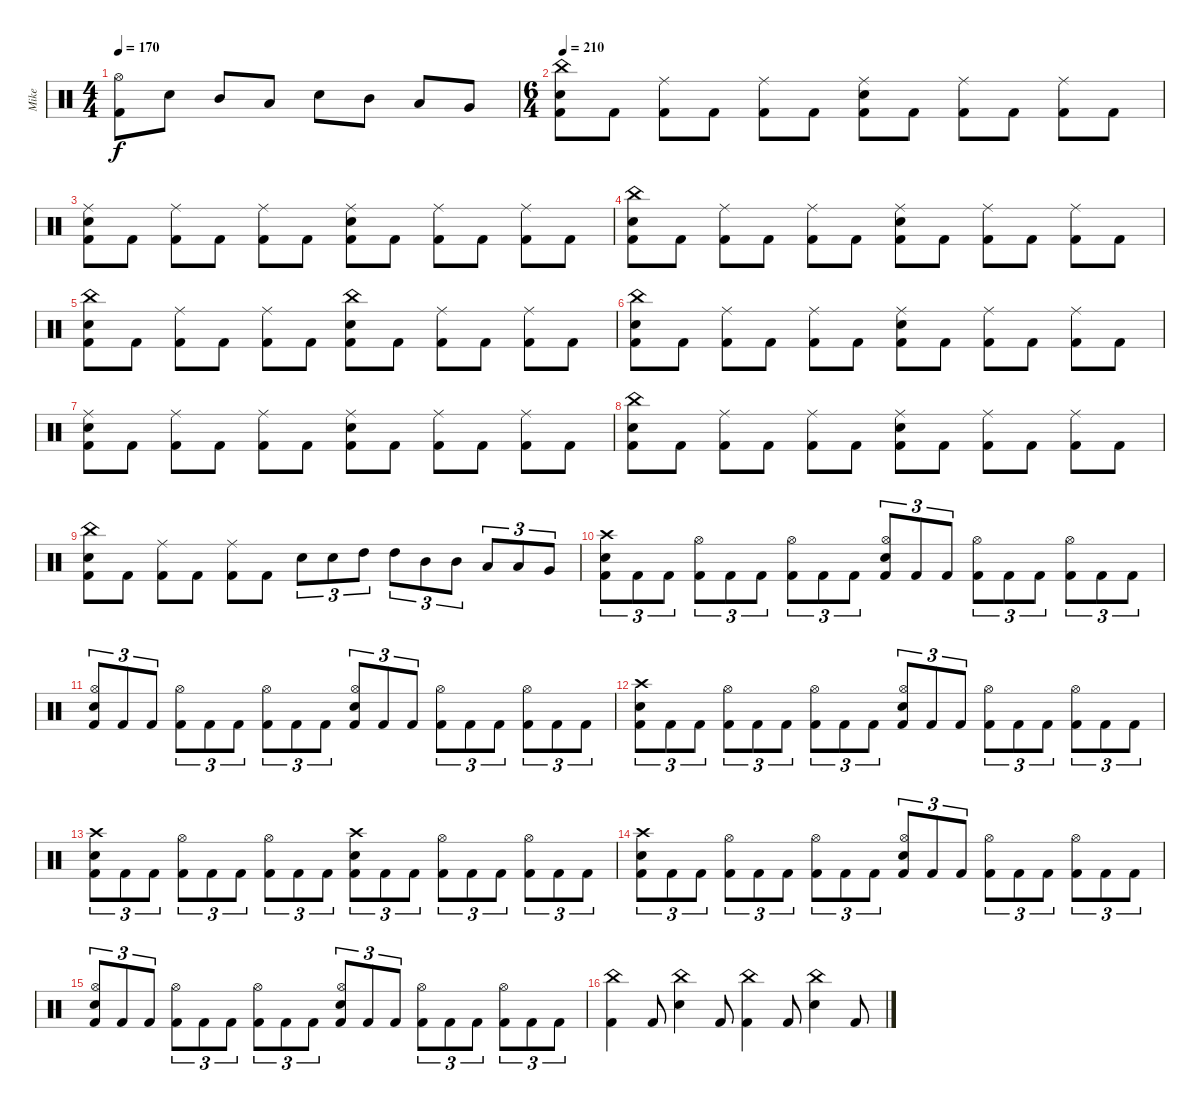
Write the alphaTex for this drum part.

\track ("Mike" "Mike") {instrument percussion}
\staff {score}
\articulation defaults
\ts (4 4)
\tempo 170
\clef neutral
\ks c
("Kick (hit) 2" "Hi-Hat (open)").8{dy f} "Electric Snare (hit)".8 "Mid Tom (hit)".8 "Low Tom (hit)".8 "Electric Snare (hit)".8 "Mid Tom (hit)".8 "Low Tom (hit)".8 "Very Low Tom (hit)".8 |
\ts (6 4)
\tempo 210
("Kick (hit) 2" "Electric Snare (hit)" "China (hit)").8 "Kick (hit) 2".8 ("Kick (hit) 2" "Ride (middle)").8 "Kick (hit) 2".8 ("Kick (hit) 2" "Ride (middle)").8 "Kick (hit) 2".8 ("Kick (hit) 2" "Electric Snare (hit)" "Ride (middle)").8 "Kick (hit) 2".8 ("Kick (hit) 2" "Ride (middle)").8 "Kick (hit) 2".8 ("Kick (hit) 2" "Ride (middle)").8 "Kick (hit) 2".8 |
("Kick (hit) 2" "Electric Snare (hit)" "Ride (middle)").8 "Kick (hit) 2".8 ("Kick (hit) 2" "Ride (middle)").8 "Kick (hit) 2".8 ("Kick (hit) 2" "Ride (middle)").8 "Kick (hit) 2".8 ("Kick (hit) 2" "Electric Snare (hit)" "Ride (middle)").8 "Kick (hit) 2".8 ("Kick (hit) 2" "Ride (middle)").8 "Kick (hit) 2".8 ("Kick (hit) 2" "Ride (middle)").8 "Kick (hit) 2".8 |
("Kick (hit) 2" "Electric Snare (hit)" "China (hit)").8 "Kick (hit) 2".8 ("Kick (hit) 2" "Ride (middle)").8 "Kick (hit) 2".8 ("Kick (hit) 2" "Ride (middle)").8 "Kick (hit) 2".8 ("Kick (hit) 2" "Electric Snare (hit)" "Ride (middle)").8 "Kick (hit) 2".8 ("Kick (hit) 2" "Ride (middle)").8 "Kick (hit) 2".8 ("Kick (hit) 2" "Ride (middle)").8 "Kick (hit) 2".8 |
("Kick (hit) 2" "Electric Snare (hit)" "China (hit)").8 "Kick (hit) 2".8 ("Kick (hit) 2" "Ride (middle)").8 "Kick (hit) 2".8 ("Kick (hit) 2" "Ride (middle)").8 "Kick (hit) 2".8 ("Kick (hit) 2" "Electric Snare (hit)" "China (hit)").8 "Kick (hit) 2".8 ("Kick (hit) 2" "Ride (middle)").8 "Kick (hit) 2".8 ("Kick (hit) 2" "Ride (middle)").8 "Kick (hit) 2".8 |
("Kick (hit) 2" "Electric Snare (hit)" "China (hit)").8 "Kick (hit) 2".8 ("Kick (hit) 2" "Ride (middle)").8 "Kick (hit) 2".8 ("Kick (hit) 2" "Ride (middle)").8 "Kick (hit) 2".8 ("Kick (hit) 2" "Electric Snare (hit)" "Ride (middle)").8 "Kick (hit) 2".8 ("Kick (hit) 2" "Ride (middle)").8 "Kick (hit) 2".8 ("Kick (hit) 2" "Ride (middle)").8 "Kick (hit) 2".8 |
("Kick (hit) 2" "Electric Snare (hit)" "Ride (middle)").8 "Kick (hit) 2".8 ("Kick (hit) 2" "Ride (middle)").8 "Kick (hit) 2".8 ("Kick (hit) 2" "Ride (middle)").8 "Kick (hit) 2".8 ("Kick (hit) 2" "Electric Snare (hit)" "Ride (middle)").8 "Kick (hit) 2".8 ("Kick (hit) 2" "Ride (middle)").8 "Kick (hit) 2".8 ("Kick (hit) 2" "Ride (middle)").8 "Kick (hit) 2".8 |
("Kick (hit) 2" "Electric Snare (hit)" "China (hit)").8 "Kick (hit) 2".8 ("Kick (hit) 2" "Ride (middle)").8 "Kick (hit) 2".8 ("Kick (hit) 2" "Ride (middle)").8 "Kick (hit) 2".8 ("Kick (hit) 2" "Electric Snare (hit)" "Ride (middle)").8 "Kick (hit) 2".8 ("Kick (hit) 2" "Ride (middle)").8 "Kick (hit) 2".8 ("Kick (hit) 2" "Ride (middle)").8 "Kick (hit) 2".8 |
("Kick (hit) 2" "Electric Snare (hit)" "China (hit)").8 "Kick (hit) 2".8 ("Kick (hit) 2" "Ride (middle)").8 "Kick (hit) 2".8 ("Kick (hit) 2" "Ride (middle)").8 "Kick (hit) 2".8 "Electric Snare (hit)".8{tu (3 2)} "Electric Snare (hit)".8{tu (3 2)} "High Tom (hit)".8{tu (3 2)} "High Tom (hit)".8{tu (3 2)} "Mid Tom (hit)".8{tu (3 2)} "Mid Tom (hit)".8{tu (3 2)} "Low Tom (hit)".8{tu (3 2)} "Low Tom (hit)".8{tu (3 2)} "Very Low Tom (hit)".8{tu (3 2)} |
("Kick (hit) 2" "Electric Snare (hit)" "Crash high (hit)").8{tu (3 2)} "Kick (hit) 2".8{tu (3 2)} "Kick (hit) 2".8{tu (3 2)} ("Kick (hit) 2" "Hi-Hat (open)").8{tu (3 2)} "Kick (hit) 2".8{tu (3 2)} "Kick (hit) 2".8{tu (3 2)} ("Kick (hit) 2" "Hi-Hat (open)").8{tu (3 2)} "Kick (hit) 2".8{tu (3 2)} "Kick (hit) 2".8{tu (3 2)} ("Kick (hit) 2" "Electric Snare (hit)" "Hi-Hat (open)").8{tu (3 2)} "Kick (hit) 2".8{tu (3 2)} "Kick (hit) 2".8{tu (3 2)} ("Kick (hit) 2" "Hi-Hat (open)").8{tu (3 2)} "Kick (hit) 2".8{tu (3 2)} "Kick (hit) 2".8{tu (3 2)} ("Kick (hit) 2" "Hi-Hat (open)").8{tu (3 2)} "Kick (hit) 2".8{tu (3 2)} "Kick (hit) 2".8{tu (3 2)} |
("Kick (hit) 2" "Electric Snare (hit)" "Hi-Hat (open)").8{tu (3 2)} "Kick (hit) 2".8{tu (3 2)} "Kick (hit) 2".8{tu (3 2)} ("Kick (hit) 2" "Hi-Hat (open)").8{tu (3 2)} "Kick (hit) 2".8{tu (3 2)} "Kick (hit) 2".8{tu (3 2)} ("Kick (hit) 2" "Hi-Hat (open)").8{tu (3 2)} "Kick (hit) 2".8{tu (3 2)} "Kick (hit) 2".8{tu (3 2)} ("Kick (hit) 2" "Electric Snare (hit)" "Hi-Hat (open)").8{tu (3 2)} "Kick (hit) 2".8{tu (3 2)} "Kick (hit) 2".8{tu (3 2)} ("Kick (hit) 2" "Hi-Hat (open)").8{tu (3 2)} "Kick (hit) 2".8{tu (3 2)} "Kick (hit) 2".8{tu (3 2)} ("Kick (hit) 2" "Hi-Hat (open)").8{tu (3 2)} "Kick (hit) 2".8{tu (3 2)} "Kick (hit) 2".8{tu (3 2)} |
("Kick (hit) 2" "Electric Snare (hit)" "Crash high (hit)").8{tu (3 2)} "Kick (hit) 2".8{tu (3 2)} "Kick (hit) 2".8{tu (3 2)} ("Kick (hit) 2" "Hi-Hat (open)").8{tu (3 2)} "Kick (hit) 2".8{tu (3 2)} "Kick (hit) 2".8{tu (3 2)} ("Kick (hit) 2" "Hi-Hat (open)").8{tu (3 2)} "Kick (hit) 2".8{tu (3 2)} "Kick (hit) 2".8{tu (3 2)} ("Kick (hit) 2" "Electric Snare (hit)" "Hi-Hat (open)").8{tu (3 2)} "Kick (hit) 2".8{tu (3 2)} "Kick (hit) 2".8{tu (3 2)} ("Kick (hit) 2" "Hi-Hat (open)").8{tu (3 2)} "Kick (hit) 2".8{tu (3 2)} "Kick (hit) 2".8{tu (3 2)} ("Kick (hit) 2" "Hi-Hat (open)").8{tu (3 2)} "Kick (hit) 2".8{tu (3 2)} "Kick (hit) 2".8{tu (3 2)} |
("Kick (hit) 2" "Electric Snare (hit)" "Crash high (hit)").8{tu (3 2)} "Kick (hit) 2".8{tu (3 2)} "Kick (hit) 2".8{tu (3 2)} ("Kick (hit) 2" "Hi-Hat (open)").8{tu (3 2)} "Kick (hit) 2".8{tu (3 2)} "Kick (hit) 2".8{tu (3 2)} ("Kick (hit) 2" "Hi-Hat (open)").8{tu (3 2)} "Kick (hit) 2".8{tu (3 2)} "Kick (hit) 2".8{tu (3 2)} ("Kick (hit) 2" "Electric Snare (hit)" "Crash high (hit)").8{tu (3 2)} "Kick (hit) 2".8{tu (3 2)} "Kick (hit) 2".8{tu (3 2)} ("Kick (hit) 2" "Hi-Hat (open)").8{tu (3 2)} "Kick (hit) 2".8{tu (3 2)} "Kick (hit) 2".8{tu (3 2)} ("Kick (hit) 2" "Hi-Hat (open)").8{tu (3 2)} "Kick (hit) 2".8{tu (3 2)} "Kick (hit) 2".8{tu (3 2)} |
("Kick (hit) 2" "Electric Snare (hit)" "Crash high (hit)").8{tu (3 2)} "Kick (hit) 2".8{tu (3 2)} "Kick (hit) 2".8{tu (3 2)} ("Kick (hit) 2" "Hi-Hat (open)").8{tu (3 2)} "Kick (hit) 2".8{tu (3 2)} "Kick (hit) 2".8{tu (3 2)} ("Kick (hit) 2" "Hi-Hat (open)").8{tu (3 2)} "Kick (hit) 2".8{tu (3 2)} "Kick (hit) 2".8{tu (3 2)} ("Kick (hit) 2" "Electric Snare (hit)" "Hi-Hat (open)").8{tu (3 2)} "Kick (hit) 2".8{tu (3 2)} "Kick (hit) 2".8{tu (3 2)} ("Kick (hit) 2" "Hi-Hat (open)").8{tu (3 2)} "Kick (hit) 2".8{tu (3 2)} "Kick (hit) 2".8{tu (3 2)} ("Kick (hit) 2" "Hi-Hat (open)").8{tu (3 2)} "Kick (hit) 2".8{tu (3 2)} "Kick (hit) 2".8{tu (3 2)} |
("Kick (hit) 2" "Electric Snare (hit)" "Hi-Hat (open)").8{tu (3 2)} "Kick (hit) 2".8{tu (3 2)} "Kick (hit) 2".8{tu (3 2)} ("Kick (hit) 2" "Hi-Hat (open)").8{tu (3 2)} "Kick (hit) 2".8{tu (3 2)} "Kick (hit) 2".8{tu (3 2)} ("Kick (hit) 2" "Hi-Hat (open)").8{tu (3 2)} "Kick (hit) 2".8{tu (3 2)} "Kick (hit) 2".8{tu (3 2)} ("Kick (hit) 2" "Electric Snare (hit)" "Hi-Hat (open)").8{tu (3 2)} "Kick (hit) 2".8{tu (3 2)} "Kick (hit) 2".8{tu (3 2)} ("Kick (hit) 2" "Hi-Hat (open)").8{tu (3 2)} "Kick (hit) 2".8{tu (3 2)} "Kick (hit) 2".8{tu (3 2)} ("Kick (hit) 2" "Hi-Hat (open)").8{tu (3 2)} "Kick (hit) 2".8{tu (3 2)} "Kick (hit) 2".8{tu (3 2)} |
("Kick (hit) 2" "China (hit)").4 "Kick (hit) 2".8 ("Electric Snare (hit)" "China (hit)").4 "Kick (hit) 2".8 ("Kick (hit) 2" "China (hit)").4 "Kick (hit) 2".8 ("Electric Snare (hit)" "China (hit)").4 "Kick (hit) 2".8
